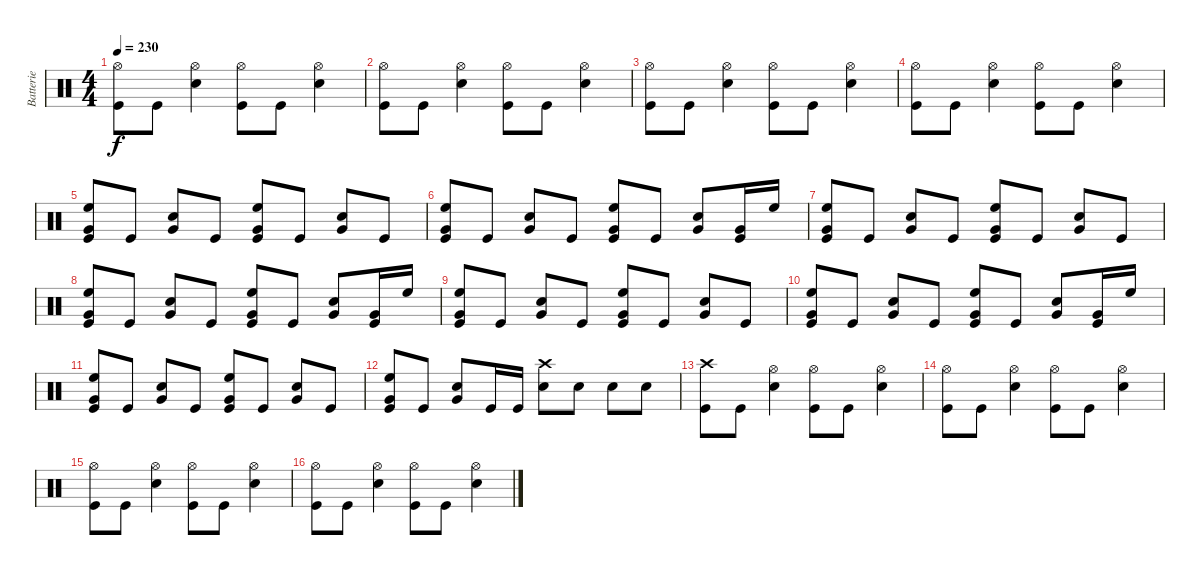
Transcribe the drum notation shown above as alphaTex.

\track ("Batterie" "Batterie") {instrument percussion}
\staff {score}
\articulation defaults
\ts (4 4)
\tempo 230
\clef neutral
\ks c
("Hi-Hat (open)" "Kick (hit)").8{dy f} "Kick (hit)".8 ("Hi-Hat (open)" "Snare (hit) 2").4 ("Hi-Hat (open)" "Kick (hit)").8 "Kick (hit)".8 ("Hi-Hat (open)" "Snare (hit) 2").4 |
("Hi-Hat (open)" "Kick (hit)").8 "Kick (hit)".8 ("Hi-Hat (open)" "Snare (hit) 2").4 ("Hi-Hat (open)" "Kick (hit)").8 "Kick (hit)".8 ("Hi-Hat (open)" "Snare (hit) 2").4 |
("Hi-Hat (open)" "Kick (hit)").8 "Kick (hit)".8 ("Hi-Hat (open)" "Snare (hit) 2").4 ("Hi-Hat (open)" "Kick (hit)").8 "Kick (hit)".8 ("Hi-Hat (open)" "Snare (hit) 2").4 |
("Hi-Hat (open)" "Kick (hit)").8 "Kick (hit)".8 ("Hi-Hat (open)" "Snare (hit) 2").4 ("Hi-Hat (open)" "Kick (hit)").8 "Kick (hit)".8 ("Hi-Hat (open)" "Snare (hit) 2").4 |
("Very Low Tom (hit)" "High Floor Tom (hit)" "Kick (hit)").8 "Kick (hit)".8 ("Very Low Tom (hit)" "Snare (hit) 2").8 "Kick (hit)".8 ("Very Low Tom (hit)" "High Floor Tom (hit)" "Kick (hit)").8 "Kick (hit)".8 ("Very Low Tom (hit)" "Snare (hit) 2").8 "Kick (hit)".8 |
("Very Low Tom (hit)" "High Floor Tom (hit)" "Kick (hit)").8 "Kick (hit)".8 ("Very Low Tom (hit)" "Snare (hit) 2").8 "Kick (hit)".8 ("Very Low Tom (hit)" "High Floor Tom (hit)" "Kick (hit)").8 "Kick (hit)".8 ("Very Low Tom (hit)" "Snare (hit) 2").8 ("Very Low Tom (hit)" "Kick (hit)").16 "High Floor Tom (hit)".16 |
("Very Low Tom (hit)" "High Floor Tom (hit)" "Kick (hit)").8 "Kick (hit)".8 ("Very Low Tom (hit)" "Snare (hit) 2").8 "Kick (hit)".8 ("Very Low Tom (hit)" "High Floor Tom (hit)" "Kick (hit)").8 "Kick (hit)".8 ("Very Low Tom (hit)" "Snare (hit) 2").8 "Kick (hit)".8 |
("Very Low Tom (hit)" "High Floor Tom (hit)" "Kick (hit)").8 "Kick (hit)".8 ("Very Low Tom (hit)" "Snare (hit) 2").8 "Kick (hit)".8 ("Very Low Tom (hit)" "High Floor Tom (hit)" "Kick (hit)").8 "Kick (hit)".8 ("Very Low Tom (hit)" "Snare (hit) 2").8 ("Very Low Tom (hit)" "Kick (hit)").16 "High Floor Tom (hit)".16 |
("Very Low Tom (hit)" "High Floor Tom (hit)" "Kick (hit)").8 "Kick (hit)".8 ("Very Low Tom (hit)" "Snare (hit) 2").8 "Kick (hit)".8 ("Very Low Tom (hit)" "High Floor Tom (hit)" "Kick (hit)").8 "Kick (hit)".8 ("Very Low Tom (hit)" "Snare (hit) 2").8 "Kick (hit)".8 |
("Very Low Tom (hit)" "High Floor Tom (hit)" "Kick (hit)").8 "Kick (hit)".8 ("Very Low Tom (hit)" "Snare (hit) 2").8 "Kick (hit)".8 ("Very Low Tom (hit)" "High Floor Tom (hit)" "Kick (hit)").8 "Kick (hit)".8 ("Very Low Tom (hit)" "Snare (hit) 2").8 ("Very Low Tom (hit)" "Kick (hit)").16 "High Floor Tom (hit)".16 |
("Very Low Tom (hit)" "High Floor Tom (hit)" "Kick (hit)").8 "Kick (hit)".8 ("Very Low Tom (hit)" "Snare (hit) 2").8 "Kick (hit)".8 ("Very Low Tom (hit)" "High Floor Tom (hit)" "Kick (hit)").8 "Kick (hit)".8 ("Very Low Tom (hit)" "Snare (hit) 2").8 "Kick (hit)".8 |
("Very Low Tom (hit)" "High Floor Tom (hit)" "Kick (hit)").8 "Kick (hit)".8 ("Very Low Tom (hit)" "Snare (hit) 2").8 "Kick (hit)".16 "Kick (hit)".16 ("Crash high (hit)" "Snare (hit) 2").8 "Snare (hit) 2".8 "Snare (hit) 2".8 "Snare (hit) 2".8 |
("Crash high (hit)" "Kick (hit)").8 "Kick (hit)".8 ("Hi-Hat (open)" "Snare (hit) 2").4 ("Hi-Hat (open)" "Kick (hit)").8 "Kick (hit)".8 ("Hi-Hat (open)" "Snare (hit) 2").4 |
("Hi-Hat (open)" "Kick (hit)").8 "Kick (hit)".8 ("Hi-Hat (open)" "Snare (hit) 2").4 ("Hi-Hat (open)" "Kick (hit)").8 "Kick (hit)".8 ("Hi-Hat (open)" "Snare (hit) 2").4 |
("Hi-Hat (open)" "Kick (hit)").8 "Kick (hit)".8 ("Hi-Hat (open)" "Snare (hit) 2").4 ("Hi-Hat (open)" "Kick (hit)").8 "Kick (hit)".8 ("Hi-Hat (open)" "Snare (hit) 2").4 |
("Hi-Hat (open)" "Kick (hit)").8 "Kick (hit)".8 ("Hi-Hat (open)" "Snare (hit) 2").4 ("Hi-Hat (open)" "Kick (hit)").8 "Kick (hit)".8 ("Hi-Hat (open)" "Snare (hit) 2").4
